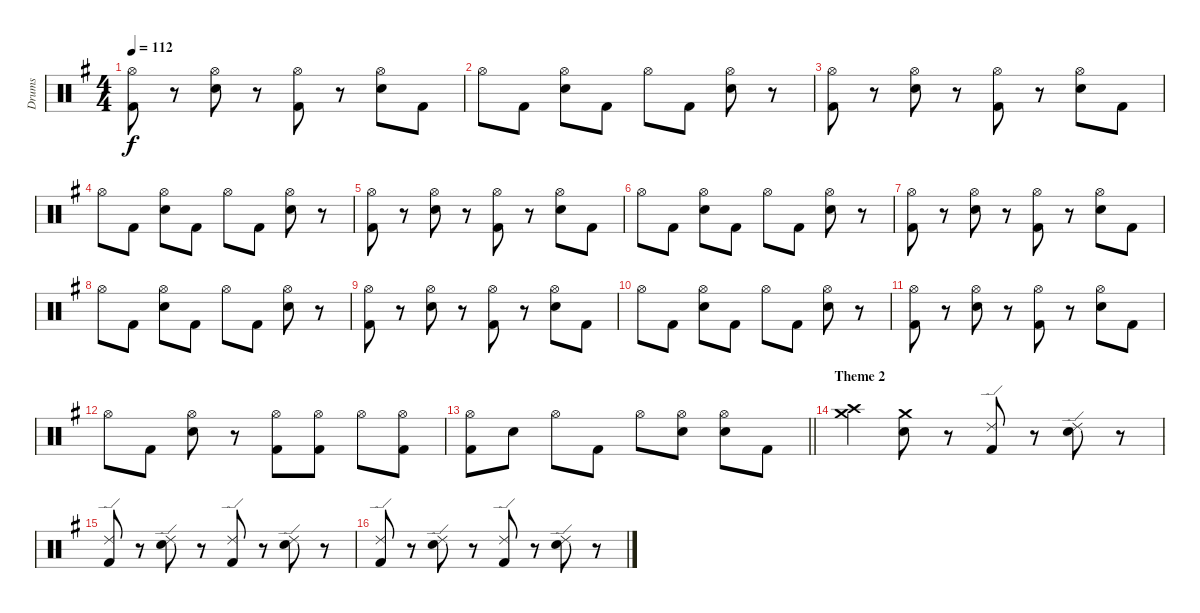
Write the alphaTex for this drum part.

\track ("Drums" "Drums") {instrument percussion}
\staff {score}
\articulation defaults
\ts (4 4)
\tempo 112
\clef neutral
\ks eminor
("Hi-Hat (open)" "Kick (hit) 2").8{dy f} r.8 ("Hi-Hat (open)" "Electric Snare (hit)").8 r.8 ("Hi-Hat (open)" "Kick (hit) 2").8 r.8 ("Hi-Hat (open)" "Electric Snare (hit)").8 "Kick (hit) 2".8 |
"Hi-Hat (open)".8 "Kick (hit) 2".8 ("Hi-Hat (open)" "Electric Snare (hit)").8 "Kick (hit) 2".8 "Hi-Hat (open)".8 "Kick (hit) 2".8 ("Hi-Hat (open)" "Electric Snare (hit)").8 r.8 |
("Hi-Hat (open)" "Kick (hit) 2").8 r.8 ("Hi-Hat (open)" "Electric Snare (hit)").8 r.8 ("Hi-Hat (open)" "Kick (hit) 2").8 r.8 ("Hi-Hat (open)" "Electric Snare (hit)").8 "Kick (hit) 2".8 |
"Hi-Hat (open)".8 "Kick (hit) 2".8 ("Hi-Hat (open)" "Electric Snare (hit)").8 "Kick (hit) 2".8 "Hi-Hat (open)".8 "Kick (hit) 2".8 ("Hi-Hat (open)" "Electric Snare (hit)").8 r.8 |
("Hi-Hat (open)" "Kick (hit) 2").8 r.8 ("Hi-Hat (open)" "Electric Snare (hit)").8 r.8 ("Hi-Hat (open)" "Kick (hit) 2").8 r.8 ("Hi-Hat (open)" "Electric Snare (hit)").8 "Kick (hit) 2".8 |
"Hi-Hat (open)".8 "Kick (hit) 2".8 ("Hi-Hat (open)" "Electric Snare (hit)").8 "Kick (hit) 2".8 "Hi-Hat (open)".8 "Kick (hit) 2".8 ("Hi-Hat (open)" "Electric Snare (hit)").8 r.8 |
("Hi-Hat (open)" "Kick (hit) 2").8 r.8 ("Hi-Hat (open)" "Electric Snare (hit)").8 r.8 ("Hi-Hat (open)" "Kick (hit) 2").8 r.8 ("Hi-Hat (open)" "Electric Snare (hit)").8 "Kick (hit) 2".8 |
"Hi-Hat (open)".8 "Kick (hit) 2".8 ("Hi-Hat (open)" "Electric Snare (hit)").8 "Kick (hit) 2".8 "Hi-Hat (open)".8 "Kick (hit) 2".8 ("Hi-Hat (open)" "Electric Snare (hit)").8 r.8 |
("Hi-Hat (open)" "Kick (hit) 2").8 r.8 ("Hi-Hat (open)" "Electric Snare (hit)").8 r.8 ("Hi-Hat (open)" "Kick (hit) 2").8 r.8 ("Hi-Hat (open)" "Electric Snare (hit)").8 "Kick (hit) 2".8 |
"Hi-Hat (open)".8 "Kick (hit) 2".8 ("Hi-Hat (open)" "Electric Snare (hit)").8 "Kick (hit) 2".8 "Hi-Hat (open)".8 "Kick (hit) 2".8 ("Hi-Hat (open)" "Electric Snare (hit)").8 r.8 |
("Hi-Hat (open)" "Kick (hit) 2").8 r.8 ("Hi-Hat (open)" "Electric Snare (hit)").8 r.8 ("Hi-Hat (open)" "Kick (hit) 2").8 r.8 ("Hi-Hat (open)" "Electric Snare (hit)").8 "Kick (hit) 2".8 |
"Hi-Hat (open)".8 "Kick (hit) 2".8 ("Hi-Hat (open)" "Electric Snare (hit)").8 r.8 ("Hi-Hat (open)" "Kick (hit) 2").8 ("Hi-Hat (open)" "Kick (hit) 2").8 "Hi-Hat (open)".8 ("Hi-Hat (open)" "Kick (hit) 2").8 |
\barLineRight lightlight
("Hi-Hat (open)" "Kick (hit) 2").8 "Electric Snare (hit)".8 "Hi-Hat (open)".8 "Kick (hit) 2".8 "Hi-Hat (open)".8 ("Hi-Hat (open)" "Electric Snare (hit)").8 ("Hi-Hat (open)" "Electric Snare (hit)").8 "Kick (hit) 2".8 |
\section ("" "Theme 2")
("Crash high (hit)" "Crash medium (hit)").4 ("Crash medium (hit)" "Electric Snare (hit)").8 r.8 ("Ride (edge) 2" "Kick (hit) 2").8 r.8 ("Ride (edge) 2" "Electric Snare (hit)").8 r.8 |
("Ride (edge) 2" "Kick (hit) 2").8 r.8 ("Ride (edge) 2" "Electric Snare (hit)").8 r.8 ("Ride (edge) 2" "Kick (hit) 2").8 r.8 ("Ride (edge) 2" "Electric Snare (hit)").8 r.8 |
("Ride (edge) 2" "Kick (hit) 2").8 r.8 ("Ride (edge) 2" "Electric Snare (hit)").8 r.8 ("Ride (edge) 2" "Kick (hit) 2").8 r.8 ("Ride (edge) 2" "Electric Snare (hit)").8 r.8
